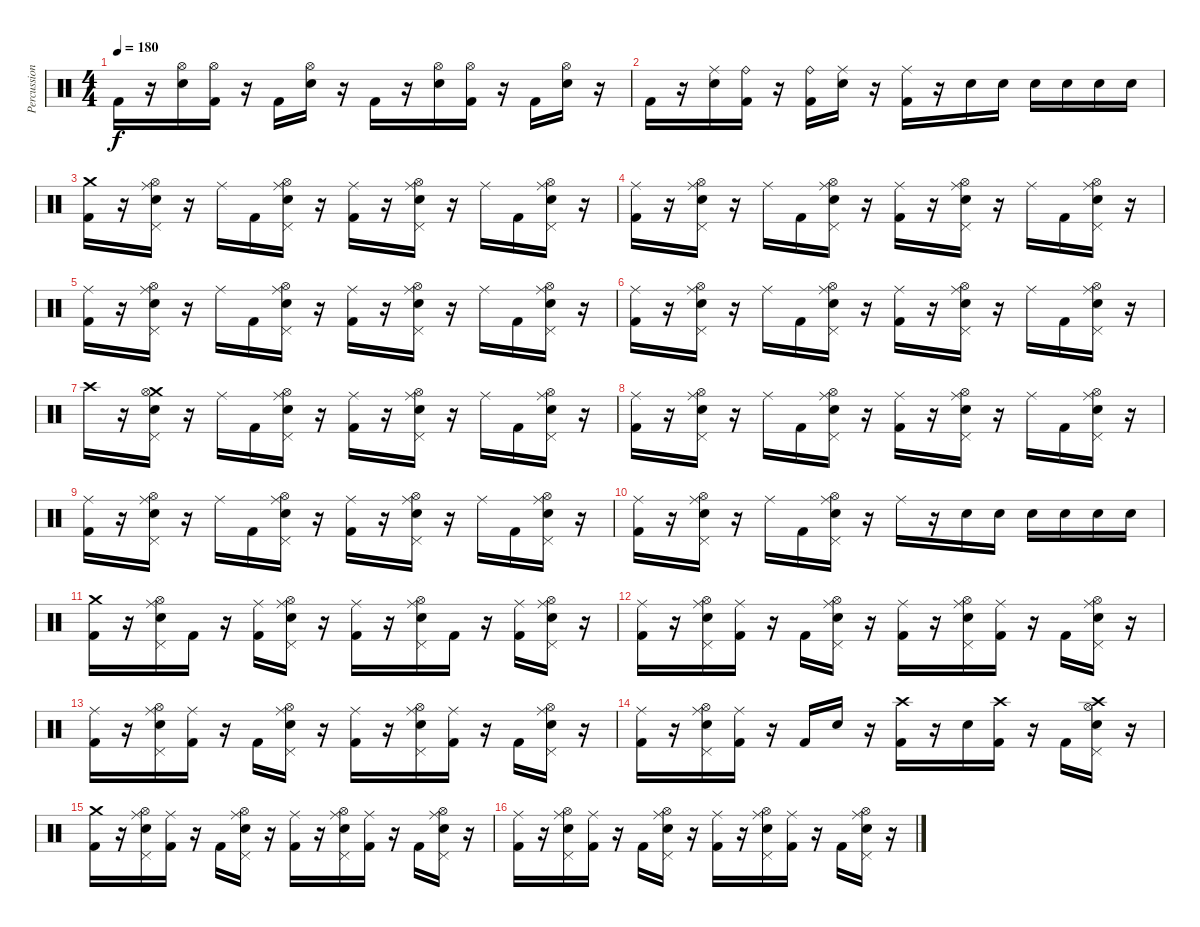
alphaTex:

\track ("Percussion" "Percussion") {instrument percussion}
\staff {score}
\articulation defaults
\ts (4 4)
\tempo 180
\clef neutral
\ks c "Kick (hit) 2".16{dy f}
r.16 ("Hi-Hat (open)" "Electric Snare (hit)").16 ("Hi-Hat (open)" "Kick (hit) 2").16 r.16 "Kick (hit) 2".16 ("Hi-Hat (open)" "Electric Snare (hit)").16 r.16 "Kick (hit) 2".16 r.16 ("Hi-Hat (open)" "Electric Snare (hit)").16 ("Hi-Hat (open)" "Kick (hit) 2").16 r.16 "Kick (hit) 2".16 ("Hi-Hat (open)" "Electric Snare (hit)").16 r.16 |
"Kick (hit) 2".16 r.16 ("Ride (middle)" "Electric Snare (hit)").16 ("Ride (bell)" "Kick (hit) 2").16 r.16 ("Ride (bell)" "Kick (hit) 2").16 ("Ride (middle)" "Electric Snare (hit)").16 r.16 ("Ride (middle)" "Kick (hit) 2").16 r.16 "Electric Snare (hit)".16 "Electric Snare (hit)".16 "Electric Snare (hit)".16 "Electric Snare (hit)".16 "Electric Snare (hit)".16 "Electric Snare (hit)".16 |
("Crash medium (hit)" "Kick (hit) 2").16 r.16 ("Ride (middle)" "Hi-Hat (open)" "Pedal Hi-Hat (hit)" "Electric Snare (hit)").16 r.16 "Ride (middle)".16 "Kick (hit) 2".16 ("Ride (middle)" "Hi-Hat (open)" "Pedal Hi-Hat (hit)" "Electric Snare (hit)").16 r.16 ("Ride (middle)" "Kick (hit) 2").16 r.16 ("Ride (middle)" "Hi-Hat (open)" "Pedal Hi-Hat (hit)" "Electric Snare (hit)").16 r.16 "Ride (middle)".16 "Kick (hit) 2".16 ("Ride (middle)" "Hi-Hat (open)" "Pedal Hi-Hat (hit)" "Electric Snare (hit)").16 r.16 |
("Ride (middle)" "Kick (hit) 2").16 r.16 ("Ride (middle)" "Hi-Hat (open)" "Pedal Hi-Hat (hit)" "Electric Snare (hit)").16 r.16 "Ride (middle)".16 "Kick (hit) 2".16 ("Ride (middle)" "Hi-Hat (open)" "Pedal Hi-Hat (hit)" "Electric Snare (hit)").16 r.16 ("Ride (middle)" "Kick (hit) 2").16 r.16 ("Ride (middle)" "Hi-Hat (open)" "Pedal Hi-Hat (hit)" "Electric Snare (hit)").16 r.16 "Ride (middle)".16 "Kick (hit) 2".16 ("Ride (middle)" "Hi-Hat (open)" "Pedal Hi-Hat (hit)" "Electric Snare (hit)").16 r.16 |
("Ride (middle)" "Kick (hit) 2").16 r.16 ("Ride (middle)" "Hi-Hat (open)" "Pedal Hi-Hat (hit)" "Electric Snare (hit)").16 r.16 "Ride (middle)".16 "Kick (hit) 2".16 ("Ride (middle)" "Hi-Hat (open)" "Pedal Hi-Hat (hit)" "Electric Snare (hit)").16 r.16 ("Ride (middle)" "Kick (hit) 2").16 r.16 ("Ride (middle)" "Hi-Hat (open)" "Pedal Hi-Hat (hit)" "Electric Snare (hit)").16 r.16 "Ride (middle)".16 "Kick (hit) 2".16 ("Ride (middle)" "Hi-Hat (open)" "Pedal Hi-Hat (hit)" "Electric Snare (hit)").16 r.16 |
("Ride (middle)" "Kick (hit) 2").16 r.16 ("Ride (middle)" "Hi-Hat (open)" "Pedal Hi-Hat (hit)" "Electric Snare (hit)").16 r.16 "Ride (middle)".16 "Kick (hit) 2".16 ("Ride (middle)" "Hi-Hat (open)" "Pedal Hi-Hat (hit)" "Electric Snare (hit)").16 r.16 ("Ride (middle)" "Kick (hit) 2").16 r.16 ("Ride (middle)" "Hi-Hat (open)" "Pedal Hi-Hat (hit)" "Electric Snare (hit)").16 r.16 "Ride (middle)".16 "Kick (hit) 2".16 ("Ride (middle)" "Hi-Hat (open)" "Pedal Hi-Hat (hit)" "Electric Snare (hit)").16 r.16 |
"Crash high (hit)".16 r.16 ("Crash medium (hit)" "Hi-Hat (open)" "Pedal Hi-Hat (hit)" "Electric Snare (hit)").16 r.16 "Ride (middle)".16 "Kick (hit) 2".16 ("Ride (middle)" "Hi-Hat (open)" "Pedal Hi-Hat (hit)" "Electric Snare (hit)").16 r.16 ("Ride (middle)" "Kick (hit) 2").16 r.16 ("Ride (middle)" "Hi-Hat (open)" "Pedal Hi-Hat (hit)" "Electric Snare (hit)").16 r.16 "Ride (middle)".16 "Kick (hit) 2".16 ("Ride (middle)" "Hi-Hat (open)" "Pedal Hi-Hat (hit)" "Electric Snare (hit)").16 r.16 |
("Ride (middle)" "Kick (hit) 2").16 r.16 ("Ride (middle)" "Hi-Hat (open)" "Pedal Hi-Hat (hit)" "Electric Snare (hit)").16 r.16 "Ride (middle)".16 "Kick (hit) 2".16 ("Ride (middle)" "Hi-Hat (open)" "Pedal Hi-Hat (hit)" "Electric Snare (hit)").16 r.16 ("Ride (middle)" "Kick (hit) 2").16 r.16 ("Ride (middle)" "Hi-Hat (open)" "Pedal Hi-Hat (hit)" "Electric Snare (hit)").16 r.16 "Ride (middle)".16 "Kick (hit) 2".16 ("Ride (middle)" "Hi-Hat (open)" "Pedal Hi-Hat (hit)" "Electric Snare (hit)").16 r.16 |
("Ride (middle)" "Kick (hit) 2").16 r.16 ("Ride (middle)" "Hi-Hat (open)" "Pedal Hi-Hat (hit)" "Electric Snare (hit)").16 r.16 "Ride (middle)".16 "Kick (hit) 2".16 ("Ride (middle)" "Hi-Hat (open)" "Pedal Hi-Hat (hit)" "Electric Snare (hit)").16 r.16 ("Ride (middle)" "Kick (hit) 2").16 r.16 ("Ride (middle)" "Hi-Hat (open)" "Pedal Hi-Hat (hit)" "Electric Snare (hit)").16 r.16 "Ride (middle)".16 "Kick (hit) 2".16 ("Ride (middle)" "Hi-Hat (open)" "Pedal Hi-Hat (hit)" "Electric Snare (hit)").16 r.16 |
("Ride (middle)" "Kick (hit) 2").16 r.16 ("Ride (middle)" "Hi-Hat (open)" "Pedal Hi-Hat (hit)" "Electric Snare (hit)").16 r.16 "Ride (middle)".16 "Kick (hit) 2".16 ("Ride (middle)" "Hi-Hat (open)" "Pedal Hi-Hat (hit)" "Electric Snare (hit)").16 r.16 "Ride (middle)".16 r.16 "Electric Snare (hit)".16 "Electric Snare (hit)".16 "Electric Snare (hit)".16 "Electric Snare (hit)".16 "Electric Snare (hit)".16 "Electric Snare (hit)".16 |
("Crash medium (hit)" "Kick (hit) 2").16 r.16 ("Ride (middle)" "Hi-Hat (open)" "Pedal Hi-Hat (hit)" "Electric Snare (hit)").16 "Kick (hit) 2".16 r.16 ("Ride (middle)" "Kick (hit) 2").16 ("Ride (middle)" "Hi-Hat (open)" "Pedal Hi-Hat (hit)" "Electric Snare (hit)").16 r.16 ("Ride (middle)" "Kick (hit) 2").16 r.16 ("Ride (middle)" "Hi-Hat (open)" "Pedal Hi-Hat (hit)" "Electric Snare (hit)").16 "Kick (hit) 2".16 r.16 ("Ride (middle)" "Kick (hit) 2").16 ("Ride (middle)" "Hi-Hat (open)" "Pedal Hi-Hat (hit)" "Electric Snare (hit)").16 r.16 |
("Ride (middle)" "Kick (hit) 2").16 r.16 ("Ride (middle)" "Hi-Hat (open)" "Pedal Hi-Hat (hit)" "Electric Snare (hit)").16 ("Ride (middle)" "Kick (hit) 2").16 r.16 "Kick (hit) 2".16 ("Ride (middle)" "Hi-Hat (open)" "Pedal Hi-Hat (hit)" "Electric Snare (hit)").16 r.16 ("Ride (middle)" "Kick (hit) 2").16 r.16 ("Ride (middle)" "Hi-Hat (open)" "Pedal Hi-Hat (hit)" "Electric Snare (hit)").16 ("Ride (middle)" "Kick (hit) 2").16 r.16 "Kick (hit) 2".16 ("Ride (middle)" "Hi-Hat (open)" "Pedal Hi-Hat (hit)" "Electric Snare (hit)").16 r.16 |
("Ride (middle)" "Kick (hit) 2").16 r.16 ("Ride (middle)" "Hi-Hat (open)" "Pedal Hi-Hat (hit)" "Electric Snare (hit)").16 ("Ride (middle)" "Kick (hit) 2").16 r.16 "Kick (hit) 2".16 ("Ride (middle)" "Hi-Hat (open)" "Pedal Hi-Hat (hit)" "Electric Snare (hit)").16 r.16 ("Ride (middle)" "Kick (hit) 2").16 r.16 ("Ride (middle)" "Hi-Hat (open)" "Pedal Hi-Hat (hit)" "Electric Snare (hit)").16 ("Ride (middle)" "Kick (hit) 2").16 r.16 "Kick (hit) 2".16 ("Ride (middle)" "Hi-Hat (open)" "Pedal Hi-Hat (hit)" "Electric Snare (hit)").16 r.16 |
("Ride (middle)" "Kick (hit) 2").16 r.16 ("Ride (middle)" "Hi-Hat (open)" "Pedal Hi-Hat (hit)" "Electric Snare (hit)").16 ("Ride (middle)" "Kick (hit) 2").16 r.16 "Kick (hit) 2".16 "Electric Snare (hit)".16 r.16 ("Crash high (hit)" "Kick (hit) 2").16 r.16 "Electric Snare (hit)".16 ("Crash high (hit)" "Kick (hit) 2").16 r.16 "Kick (hit) 2".16 ("Crash high (hit)" "Hi-Hat (open)" "Pedal Hi-Hat (hit)" "Electric Snare (hit)").16 r.16 |
("Crash medium (hit)" "Kick (hit) 2").16 r.16 ("Ride (middle)" "Hi-Hat (open)" "Pedal Hi-Hat (hit)" "Electric Snare (hit)").16 ("Ride (middle)" "Kick (hit) 2").16 r.16 "Kick (hit) 2".16 ("Ride (middle)" "Hi-Hat (open)" "Pedal Hi-Hat (hit)" "Electric Snare (hit)").16 r.16 ("Ride (middle)" "Kick (hit) 2").16 r.16 ("Ride (middle)" "Hi-Hat (open)" "Pedal Hi-Hat (hit)" "Electric Snare (hit)").16 ("Ride (middle)" "Kick (hit) 2").16 r.16 "Kick (hit) 2".16 ("Ride (middle)" "Hi-Hat (open)" "Pedal Hi-Hat (hit)" "Electric Snare (hit)").16 r.16 |
("Ride (middle)" "Kick (hit) 2").16 r.16 ("Ride (middle)" "Hi-Hat (open)" "Pedal Hi-Hat (hit)" "Electric Snare (hit)").16 ("Ride (middle)" "Kick (hit) 2").16 r.16 "Kick (hit) 2".16 ("Ride (middle)" "Hi-Hat (open)" "Pedal Hi-Hat (hit)" "Electric Snare (hit)").16 r.16 ("Ride (middle)" "Kick (hit) 2").16 r.16 ("Ride (middle)" "Hi-Hat (open)" "Pedal Hi-Hat (hit)" "Electric Snare (hit)").16 ("Ride (middle)" "Kick (hit) 2").16 r.16 "Kick (hit) 2".16 ("Ride (middle)" "Hi-Hat (open)" "Pedal Hi-Hat (hit)" "Electric Snare (hit)").16 r.16
